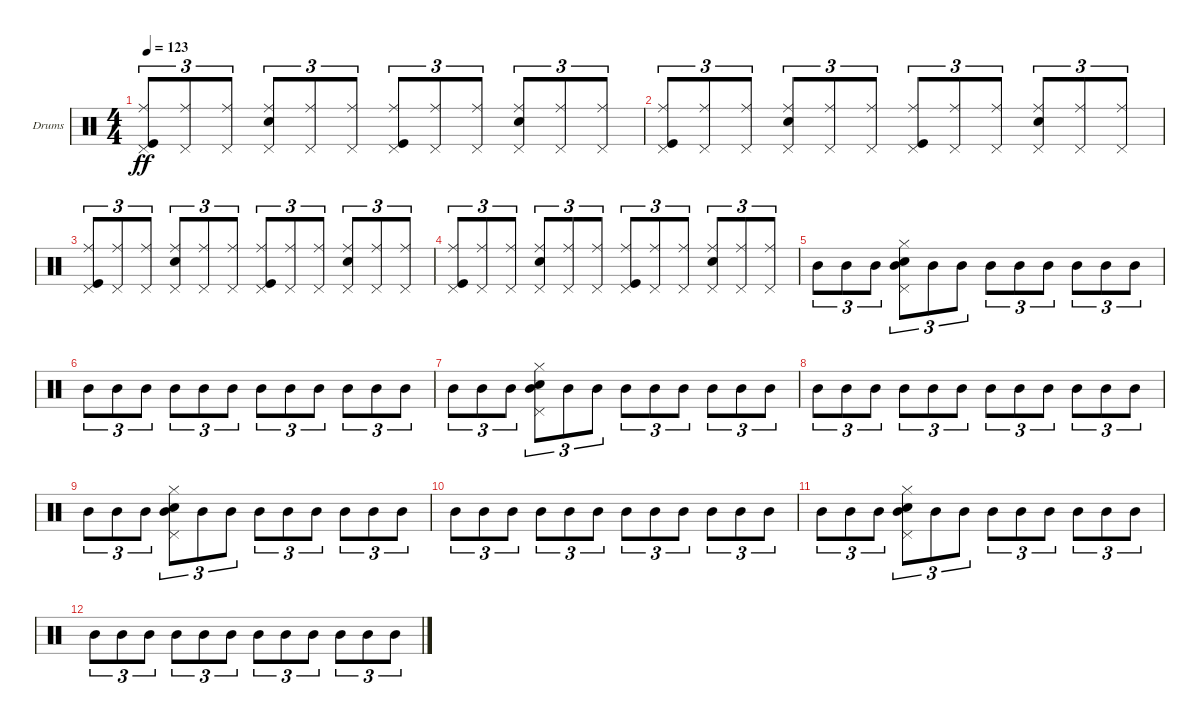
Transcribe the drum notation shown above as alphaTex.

\defaultSystemsLayout 4
\bracketExtendMode groupsimilarinstruments
\firstSystemTrackNameOrientation horizontal
\otherSystemsTrackNameOrientation horizontal
\track ("Drumkit" "Drums") {instrument percussion}
\staff {score}
\articulation defaults
\ts (4 4)
\tempo 123
\clef neutral
\ks c
("Kick (hit)" "Pedal Hi-Hat (hit)" "Ride (middle)").8{tu (3 2) dy ff} ("Pedal Hi-Hat (hit)" "Ride (middle)").8{tu (3 2)} ("Pedal Hi-Hat (hit)" "Ride (middle)").8{tu (3 2)} ("Snare (hit) 2" "Pedal Hi-Hat (hit)" "Ride (middle)").8{tu (3 2)} ("Pedal Hi-Hat (hit)" "Ride (middle)").8{tu (3 2)} ("Pedal Hi-Hat (hit)" "Ride (middle)").8{tu (3 2)} ("Kick (hit)" "Pedal Hi-Hat (hit)" "Ride (middle)").8{tu (3 2)} ("Pedal Hi-Hat (hit)" "Ride (middle)").8{tu (3 2)} ("Pedal Hi-Hat (hit)" "Ride (middle)").8{tu (3 2)} ("Snare (hit) 2" "Pedal Hi-Hat (hit)" "Ride (middle)").8{tu (3 2)} ("Pedal Hi-Hat (hit)" "Ride (middle)").8{tu (3 2)} ("Pedal Hi-Hat (hit)" "Ride (middle)").8{tu (3 2)} |
("Kick (hit)" "Pedal Hi-Hat (hit)" "Ride (middle)").8{tu (3 2)} ("Pedal Hi-Hat (hit)" "Ride (middle)").8{tu (3 2)} ("Pedal Hi-Hat (hit)" "Ride (middle)").8{tu (3 2)} ("Snare (hit) 2" "Pedal Hi-Hat (hit)" "Ride (middle)").8{tu (3 2)} ("Pedal Hi-Hat (hit)" "Ride (middle)").8{tu (3 2)} ("Pedal Hi-Hat (hit)" "Ride (middle)").8{tu (3 2)} ("Kick (hit)" "Pedal Hi-Hat (hit)" "Ride (middle)").8{tu (3 2)} ("Pedal Hi-Hat (hit)" "Ride (middle)").8{tu (3 2)} ("Pedal Hi-Hat (hit)" "Ride (middle)").8{tu (3 2)} ("Snare (hit) 2" "Pedal Hi-Hat (hit)" "Ride (middle)").8{tu (3 2)} ("Pedal Hi-Hat (hit)" "Ride (middle)").8{tu (3 2)} ("Pedal Hi-Hat (hit)" "Ride (middle)").8{tu (3 2)} |
("Kick (hit)" "Pedal Hi-Hat (hit)" "Ride (middle)").8{tu (3 2)} ("Pedal Hi-Hat (hit)" "Ride (middle)").8{tu (3 2)} ("Pedal Hi-Hat (hit)" "Ride (middle)").8{tu (3 2)} ("Snare (hit) 2" "Pedal Hi-Hat (hit)" "Ride (middle)").8{tu (3 2)} ("Pedal Hi-Hat (hit)" "Ride (middle)").8{tu (3 2)} ("Pedal Hi-Hat (hit)" "Ride (middle)").8{tu (3 2)} ("Kick (hit)" "Pedal Hi-Hat (hit)" "Ride (middle)").8{tu (3 2)} ("Pedal Hi-Hat (hit)" "Ride (middle)").8{tu (3 2)} ("Pedal Hi-Hat (hit)" "Ride (middle)").8{tu (3 2)} ("Snare (hit) 2" "Pedal Hi-Hat (hit)" "Ride (middle)").8{tu (3 2)} ("Pedal Hi-Hat (hit)" "Ride (middle)").8{tu (3 2)} ("Pedal Hi-Hat (hit)" "Ride (middle)").8{tu (3 2)} |
("Kick (hit)" "Pedal Hi-Hat (hit)" "Ride (middle)").8{tu (3 2)} ("Pedal Hi-Hat (hit)" "Ride (middle)").8{tu (3 2)} ("Pedal Hi-Hat (hit)" "Ride (middle)").8{tu (3 2)} ("Snare (hit) 2" "Pedal Hi-Hat (hit)" "Ride (middle)").8{tu (3 2)} ("Pedal Hi-Hat (hit)" "Ride (middle)").8{tu (3 2)} ("Pedal Hi-Hat (hit)" "Ride (middle)").8{tu (3 2)} ("Kick (hit)" "Pedal Hi-Hat (hit)" "Ride (middle)").8{tu (3 2)} ("Pedal Hi-Hat (hit)" "Ride (middle)").8{tu (3 2)} ("Pedal Hi-Hat (hit)" "Ride (middle)").8{tu (3 2)} ("Snare (hit) 2" "Pedal Hi-Hat (hit)" "Ride (middle)").8{tu (3 2)} ("Pedal Hi-Hat (hit)" "Ride (middle)").8{tu (3 2)} ("Pedal Hi-Hat (hit)" "Ride (middle)").8{tu (3 2)} |
"Mid Tom (hit)".8{tu (3 2)} "Mid Tom (hit)".8{tu (3 2)} "Mid Tom (hit)".8{tu (3 2)} ("Mid Tom (hit)" "Snare (hit) 2" "Hi-Hat (closed)" "Pedal Hi-Hat (hit)").8{tu (3 2)} "Mid Tom (hit)".8{tu (3 2)} "Mid Tom (hit)".8{tu (3 2)} "Mid Tom (hit)".8{tu (3 2)} "Mid Tom (hit)".8{tu (3 2)} "Mid Tom (hit)".8{tu (3 2)} "Mid Tom (hit)".8{tu (3 2)} "Mid Tom (hit)".8{tu (3 2)} "Mid Tom (hit)".8{tu (3 2)} |
"Mid Tom (hit)".8{tu (3 2)} "Mid Tom (hit)".8{tu (3 2)} "Mid Tom (hit)".8{tu (3 2)} "Mid Tom (hit)".8{tu (3 2)} "Mid Tom (hit)".8{tu (3 2)} "Mid Tom (hit)".8{tu (3 2)} "Mid Tom (hit)".8{tu (3 2)} "Mid Tom (hit)".8{tu (3 2)} "Mid Tom (hit)".8{tu (3 2)} "Mid Tom (hit)".8{tu (3 2)} "Mid Tom (hit)".8{tu (3 2)} "Mid Tom (hit)".8{tu (3 2)} |
"Mid Tom (hit)".8{tu (3 2)} "Mid Tom (hit)".8{tu (3 2)} "Mid Tom (hit)".8{tu (3 2)} ("Mid Tom (hit)" "Snare (hit) 2" "Hi-Hat (closed)" "Pedal Hi-Hat (hit)").8{tu (3 2)} "Mid Tom (hit)".8{tu (3 2)} "Mid Tom (hit)".8{tu (3 2)} "Mid Tom (hit)".8{tu (3 2)} "Mid Tom (hit)".8{tu (3 2)} "Mid Tom (hit)".8{tu (3 2)} "Mid Tom (hit)".8{tu (3 2)} "Mid Tom (hit)".8{tu (3 2)} "Mid Tom (hit)".8{tu (3 2)} |
"Mid Tom (hit)".8{tu (3 2)} "Mid Tom (hit)".8{tu (3 2)} "Mid Tom (hit)".8{tu (3 2)} "Mid Tom (hit)".8{tu (3 2)} "Mid Tom (hit)".8{tu (3 2)} "Mid Tom (hit)".8{tu (3 2)} "Mid Tom (hit)".8{tu (3 2)} "Mid Tom (hit)".8{tu (3 2)} "Mid Tom (hit)".8{tu (3 2)} "Mid Tom (hit)".8{tu (3 2)} "Mid Tom (hit)".8{tu (3 2)} "Mid Tom (hit)".8{tu (3 2)} |
"Mid Tom (hit)".8{tu (3 2)} "Mid Tom (hit)".8{tu (3 2)} "Mid Tom (hit)".8{tu (3 2)} ("Mid Tom (hit)" "Snare (hit) 2" "Hi-Hat (closed)" "Pedal Hi-Hat (hit)").8{tu (3 2)} "Mid Tom (hit)".8{tu (3 2)} "Mid Tom (hit)".8{tu (3 2)} "Mid Tom (hit)".8{tu (3 2)} "Mid Tom (hit)".8{tu (3 2)} "Mid Tom (hit)".8{tu (3 2)} "Mid Tom (hit)".8{tu (3 2)} "Mid Tom (hit)".8{tu (3 2)} "Mid Tom (hit)".8{tu (3 2)} |
"Mid Tom (hit)".8{tu (3 2)} "Mid Tom (hit)".8{tu (3 2)} "Mid Tom (hit)".8{tu (3 2)} "Mid Tom (hit)".8{tu (3 2)} "Mid Tom (hit)".8{tu (3 2)} "Mid Tom (hit)".8{tu (3 2)} "Mid Tom (hit)".8{tu (3 2)} "Mid Tom (hit)".8{tu (3 2)} "Mid Tom (hit)".8{tu (3 2)} "Mid Tom (hit)".8{tu (3 2)} "Mid Tom (hit)".8{tu (3 2)} "Mid Tom (hit)".8{tu (3 2)} |
"Mid Tom (hit)".8{tu (3 2)} "Mid Tom (hit)".8{tu (3 2)} "Mid Tom (hit)".8{tu (3 2)} ("Mid Tom (hit)" "Snare (hit) 2" "Hi-Hat (closed)" "Pedal Hi-Hat (hit)").8{tu (3 2)} "Mid Tom (hit)".8{tu (3 2)} "Mid Tom (hit)".8{tu (3 2)} "Mid Tom (hit)".8{tu (3 2)} "Mid Tom (hit)".8{tu (3 2)} "Mid Tom (hit)".8{tu (3 2)} "Mid Tom (hit)".8{tu (3 2)} "Mid Tom (hit)".8{tu (3 2)} "Mid Tom (hit)".8{tu (3 2)} |
"Mid Tom (hit)".8{tu (3 2)} "Mid Tom (hit)".8{tu (3 2)} "Mid Tom (hit)".8{tu (3 2)} "Mid Tom (hit)".8{tu (3 2)} "Mid Tom (hit)".8{tu (3 2)} "Mid Tom (hit)".8{tu (3 2)} "Mid Tom (hit)".8{tu (3 2)} "Mid Tom (hit)".8{tu (3 2)} "Mid Tom (hit)".8{tu (3 2)} "Mid Tom (hit)".8{tu (3 2)} "Mid Tom (hit)".8{tu (3 2)} "Mid Tom (hit)".8{tu (3 2)}
